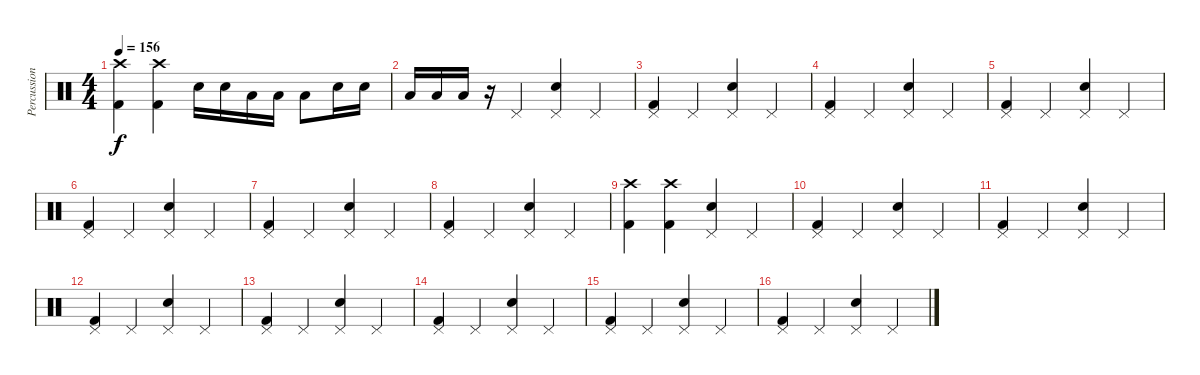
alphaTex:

\track ("Percussions" "Percussion") {instrument percussion}
\staff {score}
\articulation defaults
\ts (4 4)
\tempo 156
\clef neutral
\ks c
("Crash high (hit)" "Kick (hit) 2").4{dy f} ("Crash high (hit)" "Kick (hit) 2").4 "Electric Snare (hit)".16 "Electric Snare (hit)".16 "Low Tom (hit)".16 "Low Tom (hit)".16 "Low Tom (hit)".8 "Electric Snare (hit)".16 "Electric Snare (hit)".16 |
"Low Tom (hit)".16 "Low Tom (hit)".16 "Low Tom (hit)".16 r.16 "Pedal Hi-Hat (hit)".4 ("Pedal Hi-Hat (hit)" "Electric Snare (hit)").4 "Pedal Hi-Hat (hit)".4 |
("Pedal Hi-Hat (hit)" "Kick (hit) 2").4 "Pedal Hi-Hat (hit)".4 ("Pedal Hi-Hat (hit)" "Electric Snare (hit)").4 "Pedal Hi-Hat (hit)".4 |
("Pedal Hi-Hat (hit)" "Kick (hit) 2").4 "Pedal Hi-Hat (hit)".4 ("Pedal Hi-Hat (hit)" "Electric Snare (hit)").4 "Pedal Hi-Hat (hit)".4 |
("Pedal Hi-Hat (hit)" "Kick (hit) 2").4 "Pedal Hi-Hat (hit)".4 ("Pedal Hi-Hat (hit)" "Electric Snare (hit)").4 "Pedal Hi-Hat (hit)".4 |
("Pedal Hi-Hat (hit)" "Kick (hit) 2").4 "Pedal Hi-Hat (hit)".4 ("Pedal Hi-Hat (hit)" "Electric Snare (hit)").4 "Pedal Hi-Hat (hit)".4 |
("Pedal Hi-Hat (hit)" "Kick (hit) 2").4 "Pedal Hi-Hat (hit)".4 ("Pedal Hi-Hat (hit)" "Electric Snare (hit)").4 "Pedal Hi-Hat (hit)".4 |
("Pedal Hi-Hat (hit)" "Kick (hit) 2").4 "Pedal Hi-Hat (hit)".4 ("Pedal Hi-Hat (hit)" "Electric Snare (hit)").4 "Pedal Hi-Hat (hit)".4 |
("Crash high (hit)" "Kick (hit) 2").4 ("Crash high (hit)" "Kick (hit) 2").4 ("Pedal Hi-Hat (hit)" "Electric Snare (hit)").4 "Pedal Hi-Hat (hit)".4 |
("Pedal Hi-Hat (hit)" "Kick (hit) 2").4 "Pedal Hi-Hat (hit)".4 ("Pedal Hi-Hat (hit)" "Electric Snare (hit)").4 "Pedal Hi-Hat (hit)".4 |
("Pedal Hi-Hat (hit)" "Kick (hit) 2").4 "Pedal Hi-Hat (hit)".4 ("Pedal Hi-Hat (hit)" "Electric Snare (hit)").4 "Pedal Hi-Hat (hit)".4 |
("Pedal Hi-Hat (hit)" "Kick (hit) 2").4 "Pedal Hi-Hat (hit)".4 ("Pedal Hi-Hat (hit)" "Electric Snare (hit)").4 "Pedal Hi-Hat (hit)".4 |
("Pedal Hi-Hat (hit)" "Kick (hit) 2").4 "Pedal Hi-Hat (hit)".4 ("Pedal Hi-Hat (hit)" "Electric Snare (hit)").4 "Pedal Hi-Hat (hit)".4 |
("Pedal Hi-Hat (hit)" "Kick (hit) 2").4 "Pedal Hi-Hat (hit)".4 ("Pedal Hi-Hat (hit)" "Electric Snare (hit)").4 "Pedal Hi-Hat (hit)".4 |
("Pedal Hi-Hat (hit)" "Kick (hit) 2").4 "Pedal Hi-Hat (hit)".4 ("Pedal Hi-Hat (hit)" "Electric Snare (hit)").4 "Pedal Hi-Hat (hit)".4 |
("Pedal Hi-Hat (hit)" "Kick (hit) 2").4 "Pedal Hi-Hat (hit)".4 ("Pedal Hi-Hat (hit)" "Electric Snare (hit)").4 "Pedal Hi-Hat (hit)".4
